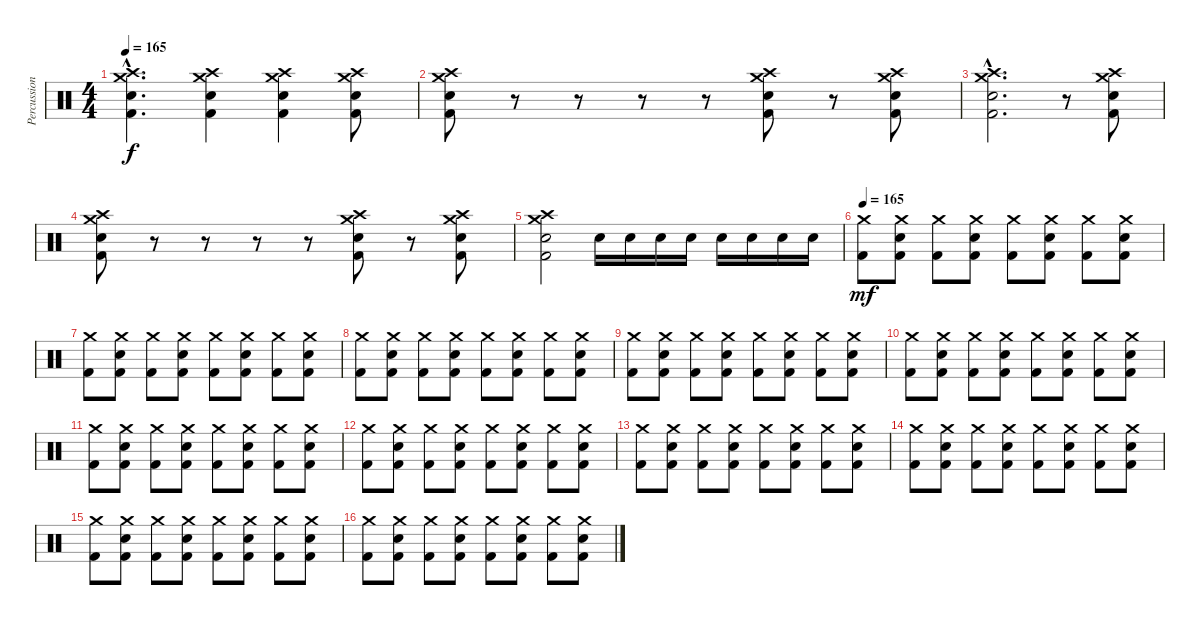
\track ("Percussion" "Percussion") {instrument percussion}
\staff {score}
\articulation defaults
\ts (4 4)
\tempo 165
\clef neutral
\ks c
("Crash medium (hit)"{hac} "Crash high (hit)"{hac} "Snare (hit) 2"{hac} "Kick (hit) 2"{hac}).4{d dy f} ("Crash medium (hit)" "Crash high (hit)" "Snare (hit) 2" "Kick (hit) 2").4 ("Crash medium (hit)" "Crash high (hit)" "Snare (hit) 2" "Kick (hit) 2").4 ("Crash medium (hit)" "Crash high (hit)" "Snare (hit) 2" "Kick (hit) 2").8 |
("Crash medium (hit)" "Crash high (hit)" "Snare (hit) 2" "Kick (hit) 2").8 r.8 r.8 r.8 r.8 ("Crash medium (hit)" "Crash high (hit)" "Snare (hit) 2" "Kick (hit) 2").8 r.8 ("Crash medium (hit)" "Crash high (hit)" "Snare (hit) 2" "Kick (hit) 2").8 |
("Crash medium (hit)"{hac} "Crash high (hit)"{hac} "Snare (hit) 2"{hac} "Kick (hit) 2"{hac}).2{d} r.8 ("Crash medium (hit)" "Crash high (hit)" "Snare (hit) 2" "Kick (hit) 2").8 |
("Crash medium (hit)" "Crash high (hit)" "Snare (hit) 2" "Kick (hit) 2").8 r.8 r.8 r.8 r.8 ("Crash medium (hit)" "Crash high (hit)" "Snare (hit) 2" "Kick (hit) 2").8 r.8 ("Crash medium (hit)" "Crash high (hit)" "Snare (hit) 2" "Kick (hit) 2").8 |
("Crash medium (hit)" "Crash high (hit)" "Snare (hit) 2" "Kick (hit) 2").2 "Snare (hit) 2".16 "Snare (hit) 2".16 "Snare (hit) 2".16 "Snare (hit) 2".16 "Snare (hit) 2".16 "Snare (hit) 2".16 "Snare (hit) 2".16 "Snare (hit) 2".16 |
\tempo 165
("Crash medium (hit)" "Kick (hit) 2").8{dy mf} ("Crash medium (hit)" "Snare (hit) 2" "Kick (hit) 2").8 ("Crash medium (hit)" "Kick (hit) 2").8 ("Crash medium (hit)" "Snare (hit) 2" "Kick (hit) 2").8 ("Crash medium (hit)" "Kick (hit) 2").8 ("Crash medium (hit)" "Snare (hit) 2" "Kick (hit) 2").8 ("Crash medium (hit)" "Kick (hit) 2").8 ("Crash medium (hit)" "Snare (hit) 2" "Kick (hit) 2").8 |
("Crash medium (hit)" "Kick (hit) 2").8 ("Crash medium (hit)" "Snare (hit) 2" "Kick (hit) 2").8 ("Crash medium (hit)" "Kick (hit) 2").8 ("Crash medium (hit)" "Snare (hit) 2" "Kick (hit) 2").8 ("Crash medium (hit)" "Kick (hit) 2").8 ("Crash medium (hit)" "Snare (hit) 2" "Kick (hit) 2").8 ("Crash medium (hit)" "Kick (hit) 2").8 ("Crash medium (hit)" "Snare (hit) 2" "Kick (hit) 2").8 |
("Crash medium (hit)" "Kick (hit) 2").8 ("Crash medium (hit)" "Snare (hit) 2" "Kick (hit) 2").8 ("Crash medium (hit)" "Kick (hit) 2").8 ("Crash medium (hit)" "Snare (hit) 2" "Kick (hit) 2").8 ("Crash medium (hit)" "Kick (hit) 2").8 ("Crash medium (hit)" "Snare (hit) 2" "Kick (hit) 2").8 ("Crash medium (hit)" "Kick (hit) 2").8 ("Crash medium (hit)" "Snare (hit) 2" "Kick (hit) 2").8 |
("Crash medium (hit)" "Kick (hit) 2").8 ("Crash medium (hit)" "Snare (hit) 2" "Kick (hit) 2").8 ("Crash medium (hit)" "Kick (hit) 2").8 ("Crash medium (hit)" "Snare (hit) 2" "Kick (hit) 2").8 ("Crash medium (hit)" "Kick (hit) 2").8 ("Crash medium (hit)" "Snare (hit) 2" "Kick (hit) 2").8 ("Crash medium (hit)" "Kick (hit) 2").8 ("Crash medium (hit)" "Snare (hit) 2" "Kick (hit) 2").8 |
("Crash medium (hit)" "Kick (hit) 2").8 ("Crash medium (hit)" "Snare (hit) 2" "Kick (hit) 2").8 ("Crash medium (hit)" "Kick (hit) 2").8 ("Crash medium (hit)" "Snare (hit) 2" "Kick (hit) 2").8 ("Crash medium (hit)" "Kick (hit) 2").8 ("Crash medium (hit)" "Snare (hit) 2" "Kick (hit) 2").8 ("Crash medium (hit)" "Kick (hit) 2").8 ("Crash medium (hit)" "Snare (hit) 2" "Kick (hit) 2").8 |
("Crash medium (hit)" "Kick (hit) 2").8 ("Crash medium (hit)" "Snare (hit) 2" "Kick (hit) 2").8 ("Crash medium (hit)" "Kick (hit) 2").8 ("Crash medium (hit)" "Snare (hit) 2" "Kick (hit) 2").8 ("Crash medium (hit)" "Kick (hit) 2").8 ("Crash medium (hit)" "Snare (hit) 2" "Kick (hit) 2").8 ("Crash medium (hit)" "Kick (hit) 2").8 ("Crash medium (hit)" "Snare (hit) 2" "Kick (hit) 2").8 |
("Crash medium (hit)" "Kick (hit) 2").8 ("Crash medium (hit)" "Snare (hit) 2" "Kick (hit) 2").8 ("Crash medium (hit)" "Kick (hit) 2").8 ("Crash medium (hit)" "Snare (hit) 2" "Kick (hit) 2").8 ("Crash medium (hit)" "Kick (hit) 2").8 ("Crash medium (hit)" "Snare (hit) 2" "Kick (hit) 2").8 ("Crash medium (hit)" "Kick (hit) 2").8 ("Crash medium (hit)" "Snare (hit) 2" "Kick (hit) 2").8 |
("Crash medium (hit)" "Kick (hit) 2").8 ("Crash medium (hit)" "Snare (hit) 2" "Kick (hit) 2").8 ("Crash medium (hit)" "Kick (hit) 2").8 ("Crash medium (hit)" "Snare (hit) 2" "Kick (hit) 2").8 ("Crash medium (hit)" "Kick (hit) 2").8 ("Crash medium (hit)" "Snare (hit) 2" "Kick (hit) 2").8 ("Crash medium (hit)" "Kick (hit) 2").8 ("Crash medium (hit)" "Snare (hit) 2" "Kick (hit) 2").8 |
("Crash medium (hit)" "Kick (hit) 2").8 ("Crash medium (hit)" "Snare (hit) 2" "Kick (hit) 2").8 ("Crash medium (hit)" "Kick (hit) 2").8 ("Crash medium (hit)" "Snare (hit) 2" "Kick (hit) 2").8 ("Crash medium (hit)" "Kick (hit) 2").8 ("Crash medium (hit)" "Snare (hit) 2" "Kick (hit) 2").8 ("Crash medium (hit)" "Kick (hit) 2").8 ("Crash medium (hit)" "Snare (hit) 2" "Kick (hit) 2").8 |
("Crash medium (hit)" "Kick (hit) 2").8 ("Crash medium (hit)" "Snare (hit) 2" "Kick (hit) 2").8 ("Crash medium (hit)" "Kick (hit) 2").8 ("Crash medium (hit)" "Snare (hit) 2" "Kick (hit) 2").8 ("Crash medium (hit)" "Kick (hit) 2").8 ("Crash medium (hit)" "Snare (hit) 2" "Kick (hit) 2").8 ("Crash medium (hit)" "Kick (hit) 2").8 ("Crash medium (hit)" "Snare (hit) 2" "Kick (hit) 2").8 |
("Crash medium (hit)" "Kick (hit) 2").8 ("Crash medium (hit)" "Snare (hit) 2" "Kick (hit) 2").8 ("Crash medium (hit)" "Kick (hit) 2").8 ("Crash medium (hit)" "Snare (hit) 2" "Kick (hit) 2").8 ("Crash medium (hit)" "Kick (hit) 2").8 ("Crash medium (hit)" "Snare (hit) 2" "Kick (hit) 2").8 ("Crash medium (hit)" "Kick (hit) 2").8 ("Crash medium (hit)" "Snare (hit) 2" "Kick (hit) 2").8
